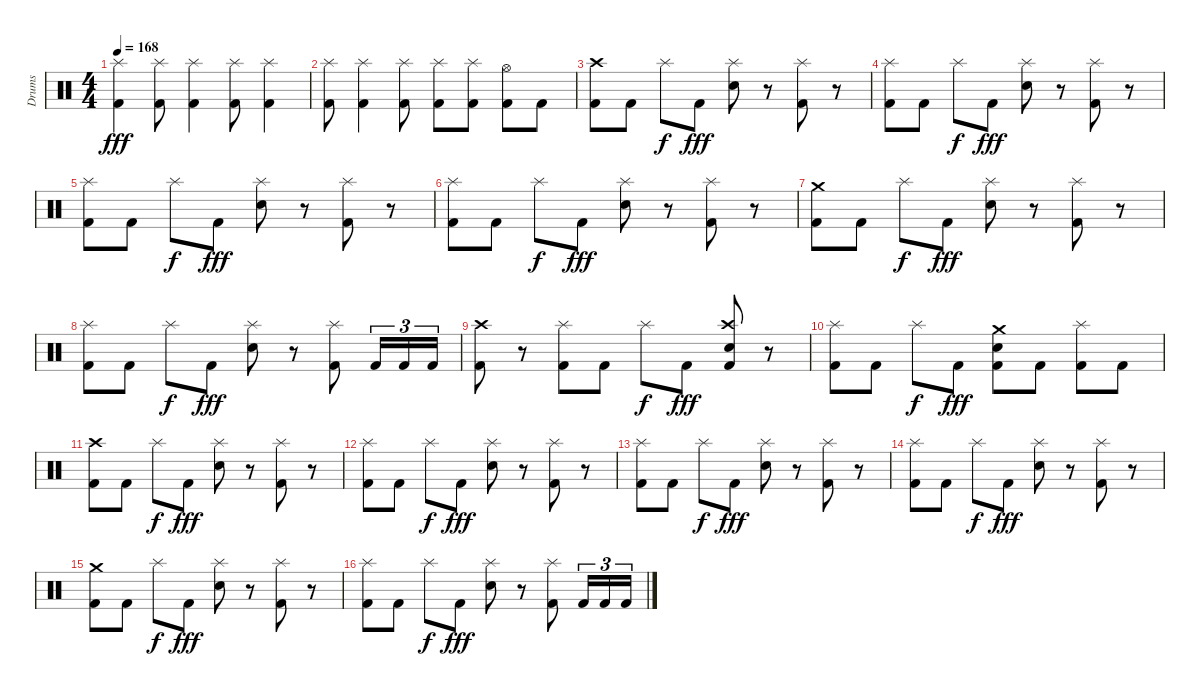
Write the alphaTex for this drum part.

\track ("Drums" "Drums") {instrument percussion}
\staff {score}
\articulation defaults
\ts (4 4)
\tempo 168
\clef neutral
\ks c
("Splash (hit)" "Kick (hit) 2").4{dy fff} ("Splash (hit)" "Kick (hit) 2").8 ("Splash (hit)" "Kick (hit) 2").4 ("Splash (hit)" "Kick (hit) 2").8 ("Splash (hit)" "Kick (hit) 2").4 |
("Splash (hit)" "Kick (hit) 2").8 ("Splash (hit)" "Kick (hit) 2").4 ("Splash (hit)" "Kick (hit) 2").8 ("Splash (hit)" "Kick (hit) 2").8 ("Splash (hit)" "Kick (hit) 2").8 ("Hi-Hat (open)" "Kick (hit) 2").8 "Kick (hit) 2".8 |
("Crash high (hit)" "Kick (hit) 2").8 "Kick (hit) 2".8 "Splash (hit)".8{dy f} "Kick (hit) 2".8{dy fff} ("Splash (hit)" "Snare (hit) 2").8 r.8 ("Splash (hit)" "Kick (hit) 2").8 r.8 |
("Splash (hit)" "Kick (hit) 2").8 "Kick (hit) 2".8 "Splash (hit)".8{dy f} "Kick (hit) 2".8{dy fff} ("Splash (hit)" "Snare (hit) 2").8 r.8 ("Splash (hit)" "Kick (hit) 2").8 r.8 |
("Splash (hit)" "Kick (hit) 2").8 "Kick (hit) 2".8 "Splash (hit)".8{dy f} "Kick (hit) 2".8{dy fff} ("Splash (hit)" "Snare (hit) 2").8 r.8 ("Splash (hit)" "Kick (hit) 2").8 r.8 |
("Splash (hit)" "Kick (hit) 2").8 "Kick (hit) 2".8 "Splash (hit)".8{dy f} "Kick (hit) 2".8{dy fff} ("Splash (hit)" "Snare (hit) 2").8 r.8 ("Splash (hit)" "Kick (hit) 2").8 r.8 |
("Crash medium (hit)" "Kick (hit) 2").8 "Kick (hit) 2".8 "Splash (hit)".8{dy f} "Kick (hit) 2".8{dy fff} ("Splash (hit)" "Snare (hit) 2").8 r.8 ("Splash (hit)" "Kick (hit) 2").8 r.8 |
("Splash (hit)" "Kick (hit) 2").8 "Kick (hit) 2".8 "Splash (hit)".8{dy f} "Kick (hit) 2".8{dy fff} ("Splash (hit)" "Snare (hit) 2").8 r.8 ("Splash (hit)" "Kick (hit) 2").8 "Kick (hit) 2".16{tu (3 2)} "Kick (hit) 2".16{tu (3 2)} "Kick (hit) 2".16{tu (3 2)} |
("Crash high (hit)" "Kick (hit) 2").8 r.8 ("Splash (hit)" "Kick (hit) 2").8 "Kick (hit) 2".8 "Splash (hit)".8{dy f} "Kick (hit) 2".8{dy fff} ("Crash high (hit)" "Snare (hit) 2" "Kick (hit) 2").8 r.8 |
("Splash (hit)" "Kick (hit) 2").8 "Kick (hit) 2".8 "Splash (hit)".8{dy f} "Kick (hit) 2".8{dy fff} ("Crash medium (hit)" "Snare (hit) 2" "Kick (hit) 2").8 "Kick (hit) 2".8 ("Splash (hit)" "Kick (hit) 2").8 "Kick (hit) 2".8 |
("Crash high (hit)" "Kick (hit) 2").8 "Kick (hit) 2".8 "Splash (hit)".8{dy f} "Kick (hit) 2".8{dy fff} ("Splash (hit)" "Snare (hit) 2").8 r.8 ("Splash (hit)" "Kick (hit) 2").8 r.8 |
("Splash (hit)" "Kick (hit) 2").8 "Kick (hit) 2".8 "Splash (hit)".8{dy f} "Kick (hit) 2".8{dy fff} ("Splash (hit)" "Snare (hit) 2").8 r.8 ("Splash (hit)" "Kick (hit) 2").8 r.8 |
("Splash (hit)" "Kick (hit) 2").8 "Kick (hit) 2".8 "Splash (hit)".8{dy f} "Kick (hit) 2".8{dy fff} ("Splash (hit)" "Snare (hit) 2").8 r.8 ("Splash (hit)" "Kick (hit) 2").8 r.8 |
("Splash (hit)" "Kick (hit) 2").8 "Kick (hit) 2".8 "Splash (hit)".8{dy f} "Kick (hit) 2".8{dy fff} ("Splash (hit)" "Snare (hit) 2").8 r.8 ("Splash (hit)" "Kick (hit) 2").8 r.8 |
("Crash medium (hit)" "Kick (hit) 2").8 "Kick (hit) 2".8 "Splash (hit)".8{dy f} "Kick (hit) 2".8{dy fff} ("Splash (hit)" "Snare (hit) 2").8 r.8 ("Splash (hit)" "Kick (hit) 2").8 r.8 |
("Splash (hit)" "Kick (hit) 2").8 "Kick (hit) 2".8 "Splash (hit)".8{dy f} "Kick (hit) 2".8{dy fff} ("Splash (hit)" "Snare (hit) 2").8 r.8 ("Splash (hit)" "Kick (hit) 2").8 "Kick (hit) 2".16{tu (3 2)} "Kick (hit) 2".16{tu (3 2)} "Kick (hit) 2".16{tu (3 2)}
